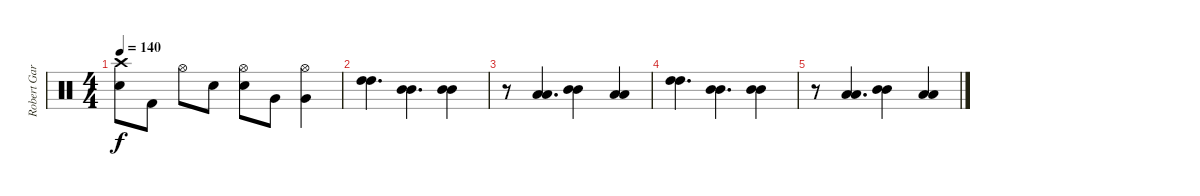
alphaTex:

\track ("Robert Garven" "Robert Gar") {instrument percussion}
\staff {score}
\articulation defaults
\ts (4 4)
\tempo 140
\clef neutral
\ks c
("Crash high (hit)" "Electric Snare (hit)").8{dy f} "Kick (hit) 2".8 "Hi-Hat (open)".8 "Electric Snare (hit)".8 ("Hi-Hat (open)" "Electric Snare (hit)").8 "Very Low Tom (hit)".8 ("Hi-Hat (open)" "Very Low Tom (hit)").4 |
("High Tom (hit)" "High Tom (hit)").4{d} ("Mid Tom (hit)" "Mid Tom (hit)").4{d} ("Mid Tom (hit)" "Mid Tom (hit)").4 |
r.8 ("Low Tom (hit)" "Low Tom (hit)").4{d} ("Mid Tom (hit)" "Mid Tom (hit)").4 ("Low Tom (hit)" "Low Tom (hit)").4 |
("High Tom (hit)" "High Tom (hit)").4{d} ("Mid Tom (hit)" "Mid Tom (hit)").4{d} ("Mid Tom (hit)" "Mid Tom (hit)").4 |
r.8 ("Low Tom (hit)" "Low Tom (hit)").4{d} ("Mid Tom (hit)" "Mid Tom (hit)").4 ("Low Tom (hit)" "Low Tom (hit)").4
